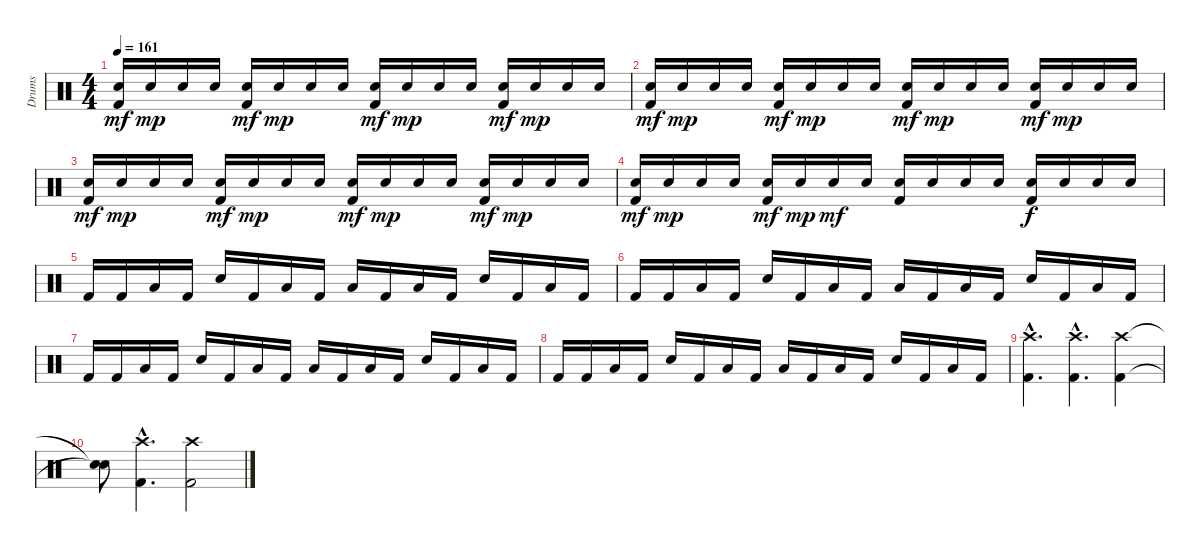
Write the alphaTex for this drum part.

\track ("Drums" "Drums") {instrument percussion}
\staff {score}
\articulation defaults
\ts (4 4)
\tempo 161
\clef neutral
\ks c
("Kick (hit) 2" "Electric Snare (hit)").16{dy mf} "Electric Snare (hit)".16{dy mp} "Electric Snare (hit)".16 "Electric Snare (hit)".16 ("Kick (hit) 2" "Electric Snare (hit)").16{dy mf} "Electric Snare (hit)".16{dy mp} "Electric Snare (hit)".16 "Electric Snare (hit)".16 ("Kick (hit) 2" "Electric Snare (hit)").16{dy mf} "Electric Snare (hit)".16{dy mp} "Electric Snare (hit)".16 "Electric Snare (hit)".16 ("Kick (hit) 2" "Electric Snare (hit)").16{dy mf} "Electric Snare (hit)".16{dy mp} "Electric Snare (hit)".16 "Electric Snare (hit)".16 |
("Kick (hit) 2" "Electric Snare (hit)").16{dy mf} "Electric Snare (hit)".16{dy mp} "Electric Snare (hit)".16 "Electric Snare (hit)".16 ("Kick (hit) 2" "Electric Snare (hit)").16{dy mf} "Electric Snare (hit)".16{dy mp} "Electric Snare (hit)".16 "Electric Snare (hit)".16 ("Kick (hit) 2" "Electric Snare (hit)").16{dy mf} "Electric Snare (hit)".16{dy mp} "Electric Snare (hit)".16 "Electric Snare (hit)".16 ("Kick (hit) 2" "Electric Snare (hit)").16{dy mf} "Electric Snare (hit)".16{dy mp} "Electric Snare (hit)".16 "Electric Snare (hit)".16 |
("Kick (hit) 2" "Electric Snare (hit)").16{dy mf} "Electric Snare (hit)".16{dy mp} "Electric Snare (hit)".16 "Electric Snare (hit)".16 ("Kick (hit) 2" "Electric Snare (hit)").16{dy mf} "Electric Snare (hit)".16{dy mp} "Electric Snare (hit)".16 "Electric Snare (hit)".16 ("Kick (hit) 2" "Electric Snare (hit)").16{dy mf} "Electric Snare (hit)".16{dy mp} "Electric Snare (hit)".16 "Electric Snare (hit)".16 ("Kick (hit) 2" "Electric Snare (hit)").16{dy mf} "Electric Snare (hit)".16{dy mp} "Electric Snare (hit)".16 "Electric Snare (hit)".16 |
("Kick (hit) 2" "Electric Snare (hit)").16{dy mf} "Electric Snare (hit)".16{dy mp} "Electric Snare (hit)".16 "Electric Snare (hit)".16 ("Kick (hit) 2" "Electric Snare (hit)").16{dy mf} "Electric Snare (hit)".16{dy mp} "Electric Snare (hit)".16{dy mf} "Electric Snare (hit)".16 ("Kick (hit) 2" "Electric Snare (hit)").16 "Electric Snare (hit)".16 "Electric Snare (hit)".16 "Electric Snare (hit)".16 ("Kick (hit) 2" "Electric Snare (hit)").16{dy f} "Electric Snare (hit)".16 "Electric Snare (hit)".16 "Electric Snare (hit)".16 |
"Kick (hit) 2".16 "Kick (hit) 2".16 "Low Tom (hit)".16 "Kick (hit) 2".16 "Electric Snare (hit)".16 "Kick (hit) 2".16 "Low Tom (hit)".16 "Kick (hit) 2".16 "Low Tom (hit)".16 "Kick (hit) 2".16 "Low Tom (hit)".16 "Kick (hit) 2".16 "Electric Snare (hit)".16 "Kick (hit) 2".16 "Low Tom (hit)".16 "Kick (hit) 2".16 |
"Kick (hit) 2".16 "Kick (hit) 2".16 "Low Tom (hit)".16 "Kick (hit) 2".16 "Electric Snare (hit)".16 "Kick (hit) 2".16 "Low Tom (hit)".16 "Kick (hit) 2".16 "Low Tom (hit)".16 "Kick (hit) 2".16 "Low Tom (hit)".16 "Kick (hit) 2".16 "Electric Snare (hit)".16 "Kick (hit) 2".16 "Low Tom (hit)".16 "Kick (hit) 2".16 |
"Kick (hit) 2".16 "Kick (hit) 2".16 "Low Tom (hit)".16 "Kick (hit) 2".16 "Electric Snare (hit)".16 "Kick (hit) 2".16 "Low Tom (hit)".16 "Kick (hit) 2".16 "Low Tom (hit)".16 "Kick (hit) 2".16 "Low Tom (hit)".16 "Kick (hit) 2".16 "Electric Snare (hit)".16 "Kick (hit) 2".16 "Low Tom (hit)".16 "Kick (hit) 2".16 |
"Kick (hit) 2".16 "Kick (hit) 2".16 "Low Tom (hit)".16 "Kick (hit) 2".16 "Electric Snare (hit)".16 "Kick (hit) 2".16 "Low Tom (hit)".16 "Kick (hit) 2".16 "Low Tom (hit)".16 "Kick (hit) 2".16 "Low Tom (hit)".16 "Kick (hit) 2".16 "Electric Snare (hit)".16 "Kick (hit) 2".16 "Low Tom (hit)".16 "Kick (hit) 2".16 |
("Kick (hit) 2"{hac} "Crash high (hit)"{hac}).4{d} ("Kick (hit) 2"{hac} "Crash high (hit)"{hac}).4{d} ("Kick (hit) 2" "Crash high (hit)").4 |
("Snare (hit)"{t} "Snare (hit)"{t}).8 ("Kick (hit) 2"{hac} "Crash high (hit)"{hac}).4{d} ("Kick (hit) 2" "Crash high (hit)").2
